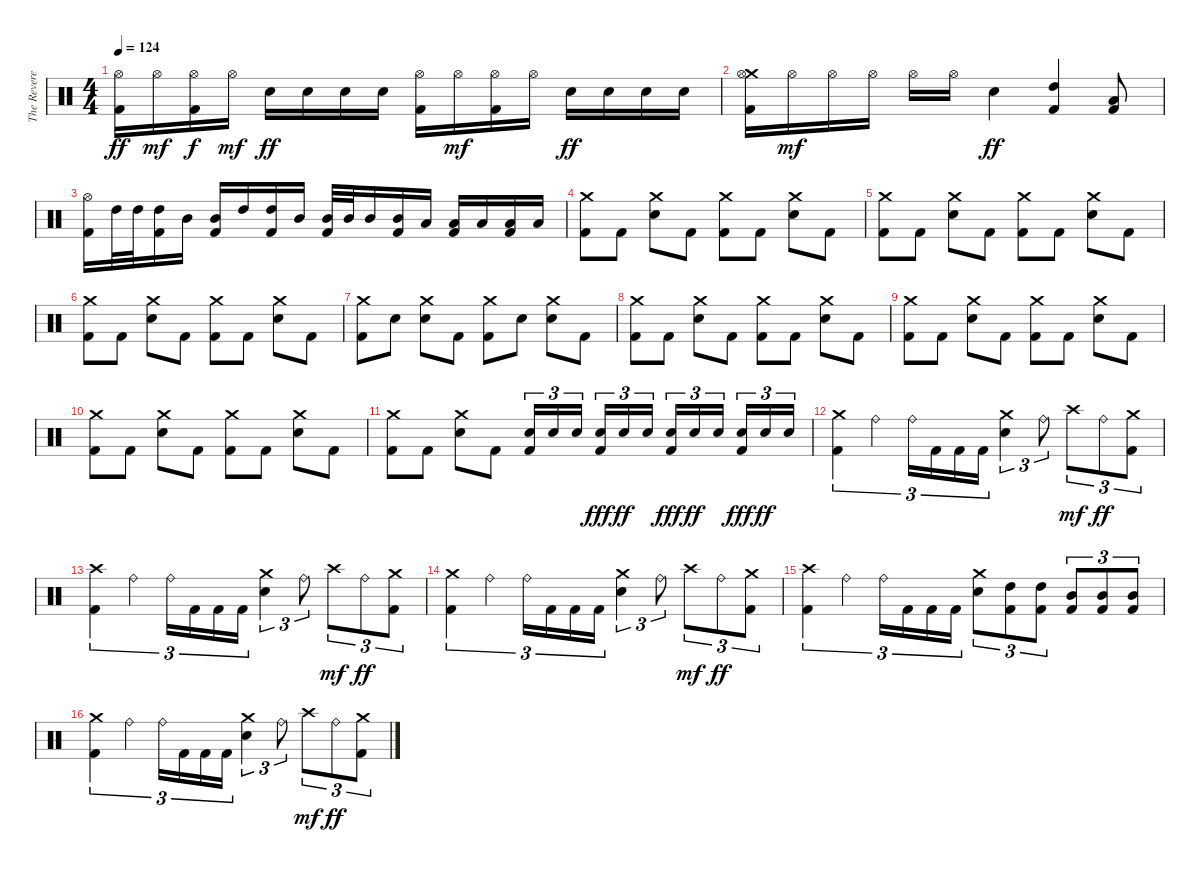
\track ("The Reverend" "The Revere") {instrument percussion}
\staff {score}
\articulation defaults
\ts (4 4)
\tempo 124
\clef neutral
\ks c
("Hi-Hat (open)" "Kick (hit) 2").16{dy ff} "Hi-Hat (open)".16{dy mf} ("Hi-Hat (open)" "Kick (hit) 2").16{dy f} "Hi-Hat (open)".16{dy mf} "Electric Snare (hit)".16{dy ff} "Electric Snare (hit)".16 "Electric Snare (hit)".16 "Electric Snare (hit)".16 ("Hi-Hat (open)" "Kick (hit) 2").16 "Hi-Hat (open)".16{dy mf} ("Hi-Hat (open)" "Kick (hit) 2").16 "Hi-Hat (open)".16 "Electric Snare (hit)".16{dy ff} "Electric Snare (hit)".16 "Electric Snare (hit)".16 "Electric Snare (hit)".16 |
("Crash medium (hit)" "Hi-Hat (open)" "Kick (hit) 2").16 "Hi-Hat (open)".16{dy mf} "Hi-Hat (open)".16 "Hi-Hat (open)".16 "Hi-Hat (open)".16 "Hi-Hat (open)".16 "Electric Snare (hit)".4{dy ff} ("High Tom (hit)" "Kick (hit) 2").4 ("Low Tom (hit)" "Kick (hit) 2").8 |
("Hi-Hat (open)" "Kick (hit) 2").16 "High Tom (hit)".32 "High Tom (hit)".32 ("High Tom (hit)" "Kick (hit) 2").16 "Mid Tom (hit)".16 ("Mid Tom (hit)" "Kick (hit) 2").16 "High Tom (hit)".16 ("High Tom (hit)" "Kick (hit) 2").16 "Mid Tom (hit)".16 ("Mid Tom (hit)" "Kick (hit) 2").32 "Mid Tom (hit)".32 "Mid Tom (hit)".16 ("Mid Tom (hit)" "Kick (hit) 2").16 "Low Tom (hit)".16 ("Low Tom (hit)" "Kick (hit) 2").16 "Low Tom (hit)".16 ("Low Tom (hit)" "Kick (hit) 2").16 "Low Tom (hit)".16 |
("Crash medium (hit)" "Kick (hit) 2").8 "Kick (hit) 2".8 ("Crash medium (hit)" "Electric Snare (hit)").8 "Kick (hit) 2".8 ("Crash medium (hit)" "Kick (hit) 2").8 "Kick (hit) 2".8 ("Crash medium (hit)" "Electric Snare (hit)").8 "Kick (hit) 2".8 |
("Crash medium (hit)" "Kick (hit) 2").8 "Kick (hit) 2".8 ("Crash medium (hit)" "Electric Snare (hit)").8 "Kick (hit) 2".8 ("Crash medium (hit)" "Kick (hit) 2").8 "Kick (hit) 2".8 ("Crash medium (hit)" "Electric Snare (hit)").8 "Kick (hit) 2".8 |
("Crash medium (hit)" "Kick (hit) 2").8 "Kick (hit) 2".8 ("Crash medium (hit)" "Electric Snare (hit)").8 "Kick (hit) 2".8 ("Crash medium (hit)" "Kick (hit) 2").8 "Kick (hit) 2".8 ("Crash medium (hit)" "Electric Snare (hit)").8 "Kick (hit) 2".8 |
("Crash medium (hit)" "Kick (hit) 2").8 "Electric Snare (hit)".8 ("Crash medium (hit)" "Electric Snare (hit)").8 "Kick (hit) 2".8 ("Crash medium (hit)" "Kick (hit) 2").8 "Electric Snare (hit)".8 ("Crash medium (hit)" "Electric Snare (hit)").8 "Kick (hit) 2".8 |
("Crash medium (hit)" "Kick (hit) 2").8 "Kick (hit) 2".8 ("Crash medium (hit)" "Electric Snare (hit)").8 "Kick (hit) 2".8 ("Crash medium (hit)" "Kick (hit) 2").8 "Kick (hit) 2".8 ("Crash medium (hit)" "Electric Snare (hit)").8 "Kick (hit) 2".8 |
("Crash medium (hit)" "Kick (hit) 2").8 "Kick (hit) 2".8 ("Crash medium (hit)" "Electric Snare (hit)").8 "Kick (hit) 2".8 ("Crash medium (hit)" "Kick (hit) 2").8 "Kick (hit) 2".8 ("Crash medium (hit)" "Electric Snare (hit)").8 "Kick (hit) 2".8 |
("Crash medium (hit)" "Kick (hit) 2").8 "Kick (hit) 2".8 ("Crash medium (hit)" "Electric Snare (hit)").8 "Kick (hit) 2".8 ("Crash medium (hit)" "Kick (hit) 2").8 "Kick (hit) 2".8 ("Crash medium (hit)" "Electric Snare (hit)").8 "Kick (hit) 2".8 |
("Crash medium (hit)" "Kick (hit) 2").8 "Kick (hit) 2".8 ("Crash medium (hit)" "Electric Snare (hit)").8 "Kick (hit) 2".8 ("Electric Snare (hit)" "Kick (hit) 2").16{tu (3 2)} "Electric Snare (hit)".16{tu (3 2)} "Electric Snare (hit)".16{tu (3 2) beam splitsecondary} ("Electric Snare (hit)" "Kick (hit) 2").16{tu (3 2) dy fff} "Electric Snare (hit)".16{tu (3 2) dy ff} "Electric Snare (hit)".16{tu (3 2)} ("Electric Snare (hit)" "Kick (hit) 2").16{tu (3 2) dy fff} "Electric Snare (hit)".16{tu (3 2) dy ff} "Electric Snare (hit)".16{tu (3 2) beam splitsecondary} ("Electric Snare (hit)" "Kick (hit) 2").16{tu (3 2) dy fff} "Electric Snare (hit)".16{tu (3 2) dy ff} "Electric Snare (hit)".16{tu (3 2)} |
("Crash medium (hit)" "Kick (hit) 2").4{tu (3 2)} "Ride (bell)".4{tu (3 2)} "Ride (bell)".16{tu (3 2)} "Kick (hit) 2".16{tu (3 2)} "Kick (hit) 2".16{tu (3 2)} "Kick (hit) 2".16{tu (3 2)} ("Crash medium (hit)" "Electric Snare (hit)").4{tu (3 2)} "Ride (bell)".8{tu (3 2)} "Crash high (hit)".8{tu (3 2) dy mf} "Ride (bell)".8{tu (3 2) dy ff} ("Crash medium (hit)" "Kick (hit) 2").8{tu (3 2)} |
("Crash high (hit)" "Kick (hit) 2").4{tu (3 2)} "Ride (bell)".4{tu (3 2)} "Ride (bell)".16{tu (3 2)} "Kick (hit) 2".16{tu (3 2)} "Kick (hit) 2".16{tu (3 2)} "Kick (hit) 2".16{tu (3 2)} ("Crash medium (hit)" "Electric Snare (hit)").4{tu (3 2)} "Ride (bell)".8{tu (3 2)} "Crash high (hit)".8{tu (3 2) dy mf} "Ride (bell)".8{tu (3 2) dy ff} ("Crash medium (hit)" "Kick (hit) 2").8{tu (3 2)} |
("Crash medium (hit)" "Kick (hit) 2").4{tu (3 2)} "Ride (bell)".4{tu (3 2)} "Ride (bell)".16{tu (3 2)} "Kick (hit) 2".16{tu (3 2)} "Kick (hit) 2".16{tu (3 2)} "Kick (hit) 2".16{tu (3 2)} ("Crash medium (hit)" "Electric Snare (hit)").4{tu (3 2)} "Ride (bell)".8{tu (3 2)} "Crash high (hit)".8{tu (3 2) dy mf} "Ride (bell)".8{tu (3 2) dy ff} ("Crash medium (hit)" "Kick (hit) 2").8{tu (3 2)} |
("Crash high (hit)" "Kick (hit) 2").4{tu (3 2)} "Ride (bell)".4{tu (3 2)} "Ride (bell)".16{tu (3 2)} "Kick (hit) 2".16{tu (3 2)} "Kick (hit) 2".16{tu (3 2)} "Kick (hit) 2".16{tu (3 2)} ("Crash medium (hit)" "Electric Snare (hit)").8{tu (3 2)} ("High Tom (hit)" "Kick (hit) 2").8{tu (3 2)} ("High Tom (hit)" "Kick (hit) 2").8{tu (3 2)} ("Mid Tom (hit)" "Kick (hit) 2").8{tu (3 2)} ("Mid Tom (hit)" "Kick (hit) 2").8{tu (3 2)} ("Mid Tom (hit)" "Kick (hit) 2").8{tu (3 2)} |
("Crash medium (hit)" "Kick (hit) 2").4{tu (3 2)} "Ride (bell)".4{tu (3 2)} "Ride (bell)".16{tu (3 2)} "Kick (hit) 2".16{tu (3 2)} "Kick (hit) 2".16{tu (3 2)} "Kick (hit) 2".16{tu (3 2)} ("Crash medium (hit)" "Electric Snare (hit)").4{tu (3 2)} "Ride (bell)".8{tu (3 2)} "Crash high (hit)".8{tu (3 2) dy mf} "Ride (bell)".8{tu (3 2) dy ff} ("Crash medium (hit)" "Kick (hit) 2").8{tu (3 2)}
